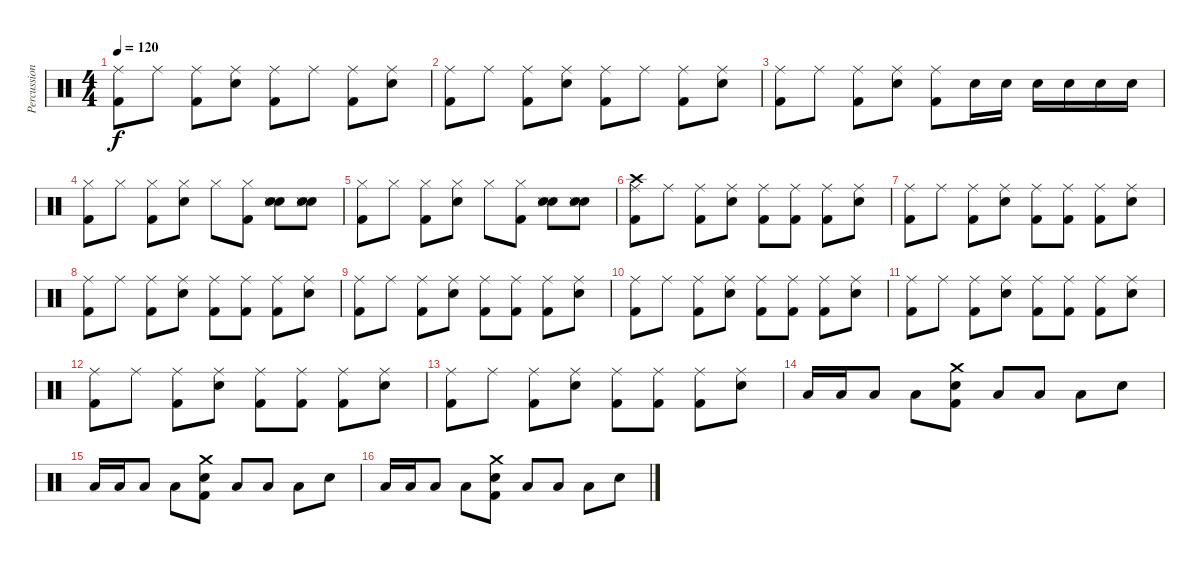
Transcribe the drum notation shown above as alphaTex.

\track ("Percussions" "Percussion") {instrument percussion}
\staff {score}
\articulation defaults
\ts (4 4)
\tempo 120
\clef neutral
\ks c
("Ride (middle)" "Kick (hit) 2").8{dy f} "Ride (middle)".8 ("Ride (middle)" "Kick (hit) 2").8 ("Ride (middle)" "Electric Snare (hit)").8 ("Ride (middle)" "Kick (hit) 2").8 "Ride (middle)".8 ("Ride (middle)" "Kick (hit) 2").8 ("Ride (middle)" "Electric Snare (hit)").8 |
("Ride (middle)" "Kick (hit) 2").8 "Ride (middle)".8 ("Ride (middle)" "Kick (hit) 2").8 ("Ride (middle)" "Electric Snare (hit)").8 ("Ride (middle)" "Kick (hit) 2").8 "Ride (middle)".8 ("Ride (middle)" "Kick (hit) 2").8 ("Ride (middle)" "Electric Snare (hit)").8 |
("Ride (middle)" "Kick (hit) 2").8 "Ride (middle)".8 ("Ride (middle)" "Kick (hit) 2").8 ("Ride (middle)" "Electric Snare (hit)").8 ("Ride (middle)" "Kick (hit) 2").8 "Electric Snare (hit)".16 "Electric Snare (hit)".16 "Electric Snare (hit)".16 "Electric Snare (hit)".16 "Electric Snare (hit)".16 "Electric Snare (hit)".16 |
("Hi-Hat (closed)" "Kick (hit) 2").8 "Hi-Hat (closed)".8 ("Hi-Hat (closed)" "Kick (hit) 2").8 ("Hi-Hat (closed)" "Electric Snare (hit)").8 "Hi-Hat (closed)".8 ("Hi-Hat (closed)" "Kick (hit) 2").8 ("Hand Clap (hit)" "Hand Clap (hit)" "Snare (side stick) 3").8 ("Hand Clap (hit)" "Hand Clap (hit)" "Snare (side stick) 3").8 |
("Hi-Hat (closed)" "Kick (hit) 2").8 "Hi-Hat (closed)".8 ("Hi-Hat (closed)" "Kick (hit) 2").8 ("Hi-Hat (closed)" "Electric Snare (hit)").8 "Hi-Hat (closed)".8 ("Hi-Hat (closed)" "Kick (hit) 2").8 ("Hand Clap (hit)" "Hand Clap (hit)" "Snare (side stick) 3").8 ("Hand Clap (hit)" "Hand Clap (hit)" "Snare (side stick) 3").8 |
("Crash high (hit)" "Ride (middle)" "Kick (hit) 2").8 "Ride (middle)".8 ("Ride (middle)" "Kick (hit) 2").8 ("Ride (middle)" "Electric Snare (hit)").8 ("Ride (middle)" "Kick (hit) 2").8 ("Ride (middle)" "Kick (hit) 2").8 ("Ride (middle)" "Kick (hit) 2").8 ("Ride (middle)" "Electric Snare (hit)").8 |
("Ride (middle)" "Kick (hit) 2").8 "Ride (middle)".8 ("Ride (middle)" "Kick (hit) 2").8 ("Ride (middle)" "Electric Snare (hit)").8 ("Ride (middle)" "Kick (hit) 2").8 ("Ride (middle)" "Kick (hit) 2").8 ("Ride (middle)" "Kick (hit) 2").8 ("Ride (middle)" "Electric Snare (hit)").8 |
("Ride (middle)" "Kick (hit) 2").8 "Ride (middle)".8 ("Ride (middle)" "Kick (hit) 2").8 ("Ride (middle)" "Electric Snare (hit)").8 ("Ride (middle)" "Kick (hit) 2").8 ("Ride (middle)" "Kick (hit) 2").8 ("Ride (middle)" "Kick (hit) 2").8 ("Ride (middle)" "Electric Snare (hit)").8 |
("Ride (middle)" "Kick (hit) 2").8 "Ride (middle)".8 ("Ride (middle)" "Kick (hit) 2").8 ("Ride (middle)" "Electric Snare (hit)").8 ("Ride (middle)" "Kick (hit) 2").8 ("Ride (middle)" "Kick (hit) 2").8 ("Ride (middle)" "Kick (hit) 2").8 ("Ride (middle)" "Electric Snare (hit)").8 |
("Ride (middle)" "Kick (hit) 2").8 "Ride (middle)".8 ("Ride (middle)" "Kick (hit) 2").8 ("Ride (middle)" "Electric Snare (hit)").8 ("Ride (middle)" "Kick (hit) 2").8 ("Ride (middle)" "Kick (hit) 2").8 ("Ride (middle)" "Kick (hit) 2").8 ("Ride (middle)" "Electric Snare (hit)").8 |
("Ride (middle)" "Kick (hit) 2").8 "Ride (middle)".8 ("Ride (middle)" "Kick (hit) 2").8 ("Ride (middle)" "Electric Snare (hit)").8 ("Ride (middle)" "Kick (hit) 2").8 ("Ride (middle)" "Kick (hit) 2").8 ("Ride (middle)" "Kick (hit) 2").8 ("Ride (middle)" "Electric Snare (hit)").8 |
("Ride (middle)" "Kick (hit) 2").8 "Ride (middle)".8 ("Ride (middle)" "Kick (hit) 2").8 ("Ride (middle)" "Electric Snare (hit)").8 ("Ride (middle)" "Kick (hit) 2").8 ("Ride (middle)" "Kick (hit) 2").8 ("Ride (middle)" "Kick (hit) 2").8 ("Ride (middle)" "Electric Snare (hit)").8 |
("Ride (middle)" "Kick (hit) 2").8 "Ride (middle)".8 ("Ride (middle)" "Kick (hit) 2").8 ("Ride (middle)" "Electric Snare (hit)").8 ("Ride (middle)" "Kick (hit) 2").8 ("Ride (middle)" "Kick (hit) 2").8 ("Ride (middle)" "Kick (hit) 2").8 ("Ride (middle)" "Electric Snare (hit)").8 |
"Low Tom (hit)".16 "Low Tom (hit)".16 "Low Tom (hit)".8 "Low Tom (hit)".8 ("Crash medium (hit)" "Electric Snare (hit)" "Kick (hit) 2").8 "Low Tom (hit)".8 "Low Tom (hit)".8 "Low Tom (hit)".8 "Electric Snare (hit)".8 |
"Low Tom (hit)".16 "Low Tom (hit)".16 "Low Tom (hit)".8 "Low Tom (hit)".8 ("Crash medium (hit)" "Electric Snare (hit)" "Kick (hit) 2").8 "Low Tom (hit)".8 "Low Tom (hit)".8 "Low Tom (hit)".8 "Electric Snare (hit)".8 |
"Low Tom (hit)".16 "Low Tom (hit)".16 "Low Tom (hit)".8 "Low Tom (hit)".8 ("Crash medium (hit)" "Electric Snare (hit)" "Kick (hit) 2").8 "Low Tom (hit)".8 "Low Tom (hit)".8 "Low Tom (hit)".8 "Electric Snare (hit)".8
